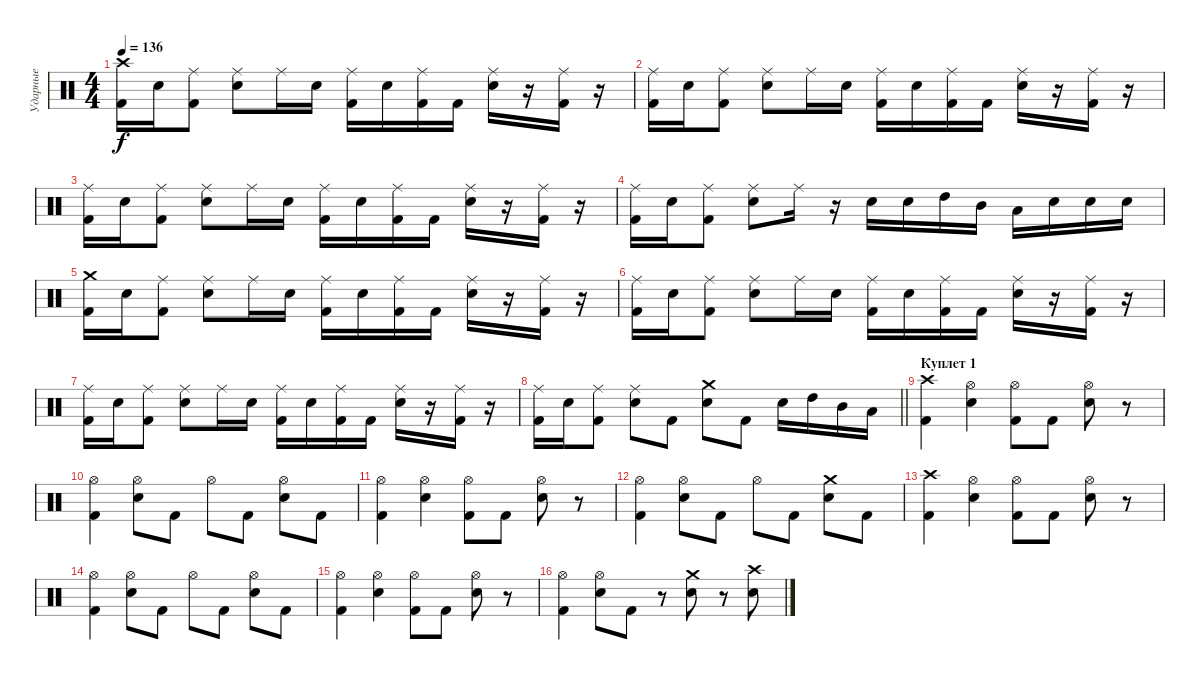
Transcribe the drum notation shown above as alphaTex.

\track ("Ударные" "Ударные") {instrument percussion}
\staff {score}
\articulation defaults
\ts (4 4)
\tempo 136
\clef neutral
\ks c
("Crash high (hit)" "Kick (hit) 2").16{dy f} "Snare (hit) 2".16 ("Ride (middle)" "Kick (hit) 2").8 ("Ride (middle)" "Snare (hit) 2").8 "Ride (middle)".16 "Snare (hit) 2".16 ("Ride (middle)" "Kick (hit) 2").16 "Snare (hit) 2".16 ("Ride (middle)" "Kick (hit) 2").16 "Kick (hit) 2".16 ("Ride (middle)" "Snare (hit) 2").16 r.16 ("Ride (middle)" "Kick (hit) 2").16 r.16 |
("Ride (middle)" "Kick (hit) 2").16 "Snare (hit) 2".16 ("Ride (middle)" "Kick (hit) 2").8 ("Ride (middle)" "Snare (hit) 2").8 "Ride (middle)".16 "Snare (hit) 2".16 ("Ride (middle)" "Kick (hit) 2").16 "Snare (hit) 2".16 ("Ride (middle)" "Kick (hit) 2").16 "Kick (hit) 2".16 ("Ride (middle)" "Snare (hit) 2").16 r.16 ("Ride (middle)" "Kick (hit) 2").16 r.16 |
("Ride (middle)" "Kick (hit) 2").16 "Snare (hit) 2".16 ("Ride (middle)" "Kick (hit) 2").8 ("Ride (middle)" "Snare (hit) 2").8 "Ride (middle)".16 "Snare (hit) 2".16 ("Ride (middle)" "Kick (hit) 2").16 "Snare (hit) 2".16 ("Ride (middle)" "Kick (hit) 2").16 "Kick (hit) 2".16 ("Ride (middle)" "Snare (hit) 2").16 r.16 ("Ride (middle)" "Kick (hit) 2").16 r.16 |
("Ride (middle)" "Kick (hit) 2").16 "Snare (hit) 2".16 ("Ride (middle)" "Kick (hit) 2").8 ("Ride (middle)" "Snare (hit) 2").8 "Ride (middle)".16 r.16 "Snare (hit) 2".16 "Snare (hit) 2".16 "High Tom (hit)".16 "Mid Tom (hit)".16 "Low Tom (hit)".16 "Snare (hit) 2".16 "Snare (hit) 2".16 "Snare (hit) 2".16 |
("Crash medium (hit)" "Kick (hit) 2").16 "Snare (hit) 2".16 ("Ride (middle)" "Kick (hit) 2").8 ("Ride (middle)" "Snare (hit) 2").8 "Ride (middle)".16 "Snare (hit) 2".16 ("Ride (middle)" "Kick (hit) 2").16 "Snare (hit) 2".16 ("Ride (middle)" "Kick (hit) 2").16 "Kick (hit) 2".16 ("Ride (middle)" "Snare (hit) 2").16 r.16 ("Ride (middle)" "Kick (hit) 2").16 r.16 |
("Ride (middle)" "Kick (hit) 2").16 "Snare (hit) 2".16 ("Ride (middle)" "Kick (hit) 2").8 ("Ride (middle)" "Snare (hit) 2").8 "Ride (middle)".16 "Snare (hit) 2".16 ("Ride (middle)" "Kick (hit) 2").16 "Snare (hit) 2".16 ("Ride (middle)" "Kick (hit) 2").16 "Kick (hit) 2".16 ("Ride (middle)" "Snare (hit) 2").16 r.16 ("Ride (middle)" "Kick (hit) 2").16 r.16 |
("Ride (middle)" "Kick (hit) 2").16 "Snare (hit) 2".16 ("Ride (middle)" "Kick (hit) 2").8 ("Ride (middle)" "Snare (hit) 2").8 "Ride (middle)".16 "Snare (hit) 2".16 ("Ride (middle)" "Kick (hit) 2").16 "Snare (hit) 2".16 ("Ride (middle)" "Kick (hit) 2").16 "Kick (hit) 2".16 ("Ride (middle)" "Snare (hit) 2").16 r.16 ("Ride (middle)" "Kick (hit) 2").16 r.16 |
\barLineRight lightlight
("Ride (middle)" "Kick (hit) 2").16 "Snare (hit) 2".16 ("Ride (middle)" "Kick (hit) 2").8 ("Ride (middle)" "Snare (hit) 2").8 "Kick (hit) 2".8 ("Crash medium (hit)" "Snare (hit) 2").8 "Kick (hit) 2".8 "Snare (hit) 2".16 "High Tom (hit)".16 "Mid Tom (hit)".16 "Low Tom (hit)".16 |
\section ("" "Куплет 1")
("Crash high (hit)" "Kick (hit) 2").4 ("Hi-Hat (open)" "Snare (hit) 2").4 ("Hi-Hat (open)" "Kick (hit) 2").8 "Kick (hit) 2".8 ("Hi-Hat (open)" "Snare (hit) 2").8 r.8 |
("Hi-Hat (open)" "Kick (hit) 2").4 ("Hi-Hat (open)" "Snare (hit) 2").8 "Kick (hit) 2".8 "Hi-Hat (open)".8 "Kick (hit) 2".8 ("Hi-Hat (open)" "Snare (hit) 2").8 "Kick (hit) 2".8 |
("Hi-Hat (open)" "Kick (hit) 2").4 ("Hi-Hat (open)" "Snare (hit) 2").4 ("Hi-Hat (open)" "Kick (hit) 2").8 "Kick (hit) 2".8 ("Hi-Hat (open)" "Snare (hit) 2").8 r.8 |
("Hi-Hat (open)" "Kick (hit) 2").4 ("Hi-Hat (open)" "Snare (hit) 2").8 "Kick (hit) 2".8 "Hi-Hat (open)".8 "Kick (hit) 2".8 ("Crash medium (hit)" "Snare (hit) 2").8 "Kick (hit) 2".8 |
("Crash high (hit)" "Kick (hit) 2").4 ("Hi-Hat (open)" "Snare (hit) 2").4 ("Hi-Hat (open)" "Kick (hit) 2").8 "Kick (hit) 2".8 ("Hi-Hat (open)" "Snare (hit) 2").8 r.8 |
("Hi-Hat (open)" "Kick (hit) 2").4 ("Hi-Hat (open)" "Snare (hit) 2").8 "Kick (hit) 2".8 "Hi-Hat (open)".8 "Kick (hit) 2".8 ("Hi-Hat (open)" "Snare (hit) 2").8 "Kick (hit) 2".8 |
("Hi-Hat (open)" "Kick (hit) 2").4 ("Hi-Hat (open)" "Snare (hit) 2").4 ("Hi-Hat (open)" "Kick (hit) 2").8 "Kick (hit) 2".8 ("Hi-Hat (open)" "Snare (hit) 2").8 r.8 |
("Hi-Hat (open)" "Kick (hit) 2").4 ("Hi-Hat (open)" "Snare (hit) 2").8 "Kick (hit) 2".8 r.8 ("Crash medium (hit)" "Snare (hit) 2").8 r.8 ("Crash high (hit)" "Snare (hit) 2").8
